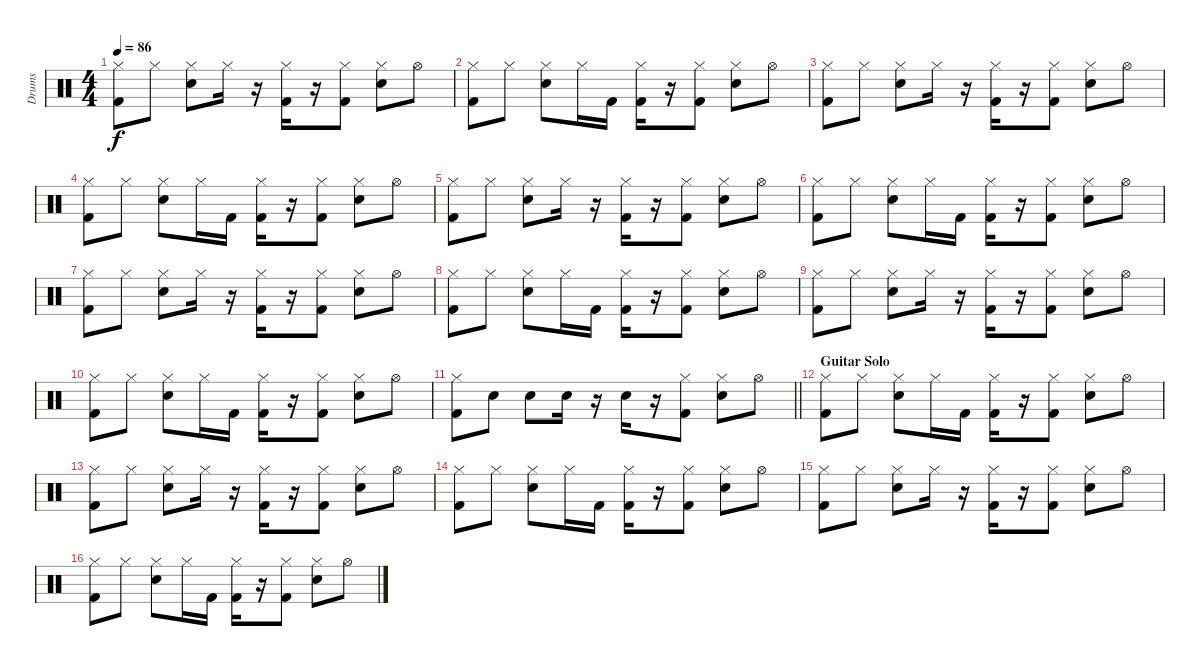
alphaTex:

\track ("Drums" "Drums") {instrument percussion}
\staff {score}
\articulation defaults
\ts (4 4)
\tempo 86
\clef neutral
\ks c
("Kick (hit) 2" "Hi-Hat (closed)").8{dy f} "Hi-Hat (closed)".8 ("Snare (hit) 2" "Hi-Hat (closed)").8 "Hi-Hat (closed)".16 r.16 ("Kick (hit) 2" "Hi-Hat (closed)").16 r.16 ("Kick (hit) 2" "Hi-Hat (closed)").8 ("Snare (hit) 2" "Hi-Hat (closed)").8 "Hi-Hat (open)".8 |
("Kick (hit) 2" "Hi-Hat (closed)").8 "Hi-Hat (closed)".8 ("Snare (hit) 2" "Hi-Hat (closed)").8 "Hi-Hat (closed)".16 "Kick (hit) 2".16 ("Kick (hit) 2" "Hi-Hat (closed)").16 r.16 ("Kick (hit) 2" "Hi-Hat (closed)").8 ("Snare (hit) 2" "Hi-Hat (closed)").8 "Hi-Hat (open)".8 |
("Kick (hit) 2" "Hi-Hat (closed)").8 "Hi-Hat (closed)".8 ("Snare (hit) 2" "Hi-Hat (closed)").8 "Hi-Hat (closed)".16 r.16 ("Kick (hit) 2" "Hi-Hat (closed)").16 r.16 ("Kick (hit) 2" "Hi-Hat (closed)").8 ("Snare (hit) 2" "Hi-Hat (closed)").8 "Hi-Hat (open)".8 |
("Kick (hit) 2" "Hi-Hat (closed)").8 "Hi-Hat (closed)".8 ("Snare (hit) 2" "Hi-Hat (closed)").8 "Hi-Hat (closed)".16 "Kick (hit) 2".16 ("Kick (hit) 2" "Hi-Hat (closed)").16 r.16 ("Kick (hit) 2" "Hi-Hat (closed)").8 ("Snare (hit) 2" "Hi-Hat (closed)").8 "Hi-Hat (open)".8 |
("Kick (hit) 2" "Hi-Hat (closed)").8 "Hi-Hat (closed)".8 ("Snare (hit) 2" "Hi-Hat (closed)").8 "Hi-Hat (closed)".16 r.16 ("Kick (hit) 2" "Hi-Hat (closed)").16 r.16 ("Kick (hit) 2" "Hi-Hat (closed)").8 ("Snare (hit) 2" "Hi-Hat (closed)").8 "Hi-Hat (open)".8 |
("Kick (hit) 2" "Hi-Hat (closed)").8 "Hi-Hat (closed)".8 ("Snare (hit) 2" "Hi-Hat (closed)").8 "Hi-Hat (closed)".16 "Kick (hit) 2".16 ("Kick (hit) 2" "Hi-Hat (closed)").16 r.16 ("Kick (hit) 2" "Hi-Hat (closed)").8 ("Snare (hit) 2" "Hi-Hat (closed)").8 "Hi-Hat (open)".8 |
("Kick (hit) 2" "Hi-Hat (closed)").8 "Hi-Hat (closed)".8 ("Snare (hit) 2" "Hi-Hat (closed)").8 "Hi-Hat (closed)".16 r.16 ("Kick (hit) 2" "Hi-Hat (closed)").16 r.16 ("Kick (hit) 2" "Hi-Hat (closed)").8 ("Snare (hit) 2" "Hi-Hat (closed)").8 "Hi-Hat (open)".8 |
("Kick (hit) 2" "Hi-Hat (closed)").8 "Hi-Hat (closed)".8 ("Snare (hit) 2" "Hi-Hat (closed)").8 "Hi-Hat (closed)".16 "Kick (hit) 2".16 ("Kick (hit) 2" "Hi-Hat (closed)").16 r.16 ("Kick (hit) 2" "Hi-Hat (closed)").8 ("Snare (hit) 2" "Hi-Hat (closed)").8 "Hi-Hat (open)".8 |
("Kick (hit) 2" "Hi-Hat (closed)").8 "Hi-Hat (closed)".8 ("Snare (hit) 2" "Hi-Hat (closed)").8 "Hi-Hat (closed)".16 r.16 ("Kick (hit) 2" "Hi-Hat (closed)").16 r.16 ("Kick (hit) 2" "Hi-Hat (closed)").8 ("Snare (hit) 2" "Hi-Hat (closed)").8 "Hi-Hat (open)".8 |
("Kick (hit) 2" "Hi-Hat (closed)").8 "Hi-Hat (closed)".8 ("Snare (hit) 2" "Hi-Hat (closed)").8 "Hi-Hat (closed)".16 "Kick (hit) 2".16 ("Kick (hit) 2" "Hi-Hat (closed)").16 r.16 ("Kick (hit) 2" "Hi-Hat (closed)").8 ("Snare (hit) 2" "Hi-Hat (closed)").8 "Hi-Hat (open)".8 |
\barLineRight lightlight
("Kick (hit) 2" "Hi-Hat (closed)").8 "Snare (hit) 2".8 "Snare (hit) 2".8 "Snare (hit) 2".16 r.16 "Snare (hit) 2".16 r.16 ("Kick (hit) 2" "Hi-Hat (closed)").8 ("Snare (hit) 2" "Hi-Hat (closed)").8 "Hi-Hat (open)".8 |
\section ("" "Guitar Solo")
("Kick (hit) 2" "Hi-Hat (closed)").8 "Hi-Hat (closed)".8 ("Snare (hit) 2" "Hi-Hat (closed)").8 "Hi-Hat (closed)".16 "Kick (hit) 2".16 ("Kick (hit) 2" "Hi-Hat (closed)").16 r.16 ("Kick (hit) 2" "Hi-Hat (closed)").8 ("Snare (hit) 2" "Hi-Hat (closed)").8 "Hi-Hat (open)".8 |
("Kick (hit) 2" "Hi-Hat (closed)").8 "Hi-Hat (closed)".8 ("Snare (hit) 2" "Hi-Hat (closed)").8 "Hi-Hat (closed)".16 r.16 ("Kick (hit) 2" "Hi-Hat (closed)").16 r.16 ("Kick (hit) 2" "Hi-Hat (closed)").8 ("Snare (hit) 2" "Hi-Hat (closed)").8 "Hi-Hat (open)".8 |
("Kick (hit) 2" "Hi-Hat (closed)").8 "Hi-Hat (closed)".8 ("Snare (hit) 2" "Hi-Hat (closed)").8 "Hi-Hat (closed)".16 "Kick (hit) 2".16 ("Kick (hit) 2" "Hi-Hat (closed)").16 r.16 ("Kick (hit) 2" "Hi-Hat (closed)").8 ("Snare (hit) 2" "Hi-Hat (closed)").8 "Hi-Hat (open)".8 |
("Kick (hit) 2" "Hi-Hat (closed)").8 "Hi-Hat (closed)".8 ("Snare (hit) 2" "Hi-Hat (closed)").8 "Hi-Hat (closed)".16 r.16 ("Kick (hit) 2" "Hi-Hat (closed)").16 r.16 ("Kick (hit) 2" "Hi-Hat (closed)").8 ("Snare (hit) 2" "Hi-Hat (closed)").8 "Hi-Hat (open)".8 |
("Kick (hit) 2" "Hi-Hat (closed)").8 "Hi-Hat (closed)".8 ("Snare (hit) 2" "Hi-Hat (closed)").8 "Hi-Hat (closed)".16 "Kick (hit) 2".16 ("Kick (hit) 2" "Hi-Hat (closed)").16 r.16 ("Kick (hit) 2" "Hi-Hat (closed)").8 ("Snare (hit) 2" "Hi-Hat (closed)").8 "Hi-Hat (open)".8
